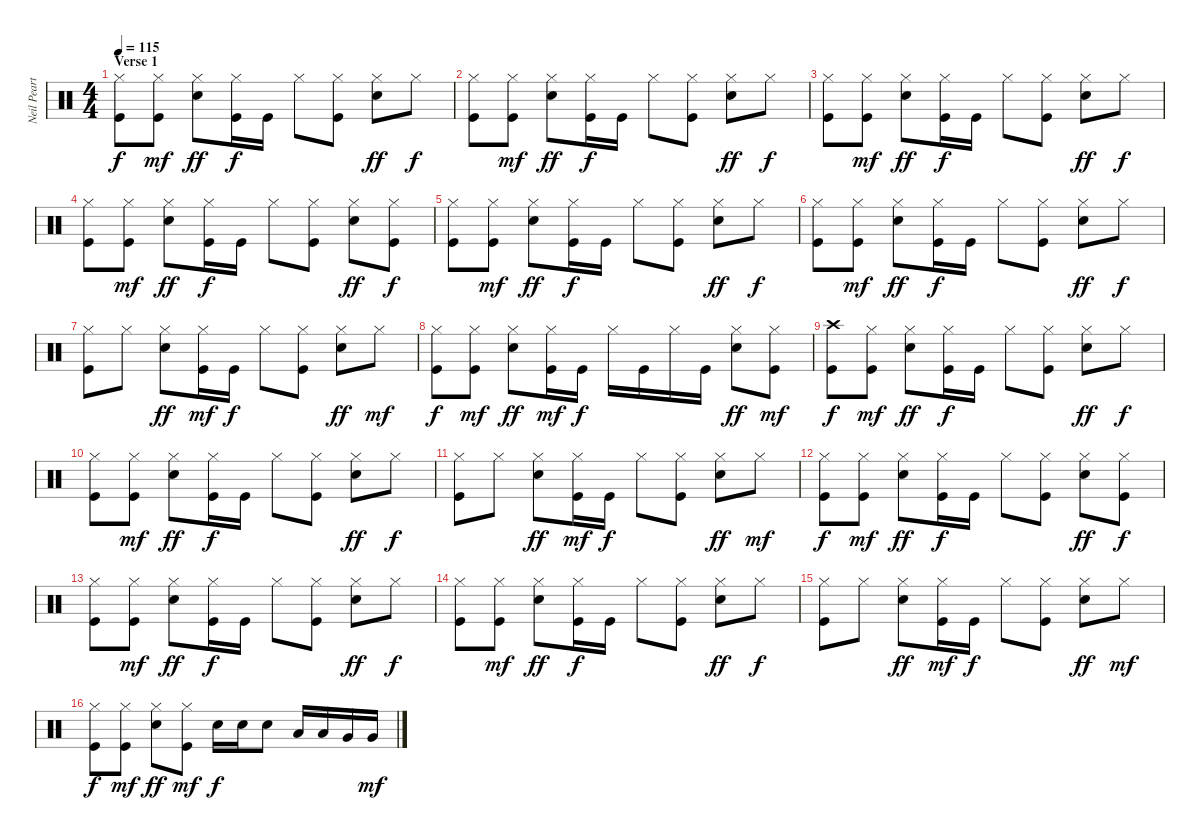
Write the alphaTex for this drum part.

\track ("Neil Peart - Drums" "Neil Peart") {instrument percussion}
\staff {score}
\articulation defaults
\ts (4 4)
\section ("" "Verse 1")
\tempo 115
\clef neutral
\ks c
("Hi-Hat (closed)" "Kick (hit)").8{dy f} ("Hi-Hat (closed)" "Kick (hit)").8{dy mf} ("Hi-Hat (closed)" "Electric Snare (hit)").8{dy ff} ("Hi-Hat (closed)" "Kick (hit)").16{dy f} "Kick (hit)".16 "Hi-Hat (closed)".8 ("Hi-Hat (closed)" "Kick (hit)").8 ("Hi-Hat (closed)" "Electric Snare (hit)").8{dy ff} "Hi-Hat (closed)".8{dy f} |
("Hi-Hat (closed)" "Kick (hit)").8 ("Hi-Hat (closed)" "Kick (hit)").8{dy mf} ("Hi-Hat (closed)" "Electric Snare (hit)").8{dy ff} ("Hi-Hat (closed)" "Kick (hit)").16{dy f} "Kick (hit)".16 "Hi-Hat (closed)".8 ("Hi-Hat (closed)" "Kick (hit)").8 ("Hi-Hat (closed)" "Electric Snare (hit)").8{dy ff} "Hi-Hat (closed)".8{dy f} |
("Hi-Hat (closed)" "Kick (hit)").8 ("Hi-Hat (closed)" "Kick (hit)").8{dy mf} ("Hi-Hat (closed)" "Electric Snare (hit)").8{dy ff} ("Hi-Hat (closed)" "Kick (hit)").16{dy f} "Kick (hit)".16 "Hi-Hat (closed)".8 ("Hi-Hat (closed)" "Kick (hit)").8 ("Hi-Hat (closed)" "Electric Snare (hit)").8{dy ff} "Hi-Hat (closed)".8{dy f} |
("Hi-Hat (closed)" "Kick (hit)").8 ("Hi-Hat (closed)" "Kick (hit)").8{dy mf} ("Hi-Hat (closed)" "Electric Snare (hit)").8{dy ff} ("Hi-Hat (closed)" "Kick (hit)").16{dy f} "Kick (hit)".16 "Hi-Hat (closed)".8 ("Hi-Hat (closed)" "Kick (hit)").8 ("Hi-Hat (closed)" "Electric Snare (hit)").8{dy ff} ("Hi-Hat (closed)" "Kick (hit)").8{dy f} |
("Hi-Hat (closed)" "Kick (hit)").8 ("Hi-Hat (closed)" "Kick (hit)").8{dy mf} ("Hi-Hat (closed)" "Electric Snare (hit)").8{dy ff} ("Hi-Hat (closed)" "Kick (hit)").16{dy f} "Kick (hit)".16 "Hi-Hat (closed)".8 ("Hi-Hat (closed)" "Kick (hit)").8 ("Hi-Hat (closed)" "Electric Snare (hit)").8{dy ff} "Hi-Hat (closed)".8{dy f} |
("Hi-Hat (closed)" "Kick (hit)").8 ("Hi-Hat (closed)" "Kick (hit)").8{dy mf} ("Hi-Hat (closed)" "Electric Snare (hit)").8{dy ff} ("Hi-Hat (closed)" "Kick (hit)").16{dy f} "Kick (hit)".16 "Hi-Hat (closed)".8 ("Hi-Hat (closed)" "Kick (hit)").8 ("Hi-Hat (closed)" "Electric Snare (hit)").8{dy ff} "Hi-Hat (closed)".8{dy f} |
("Hi-Hat (closed)" "Kick (hit)").8 "Hi-Hat (closed)".8 ("Hi-Hat (closed)" "Electric Snare (hit)").8{dy ff} ("Hi-Hat (closed)" "Kick (hit)").16{dy mf} "Kick (hit)".16{dy f} "Hi-Hat (closed)".8 ("Hi-Hat (closed)" "Kick (hit)").8 ("Hi-Hat (closed)" "Electric Snare (hit)").8{dy ff} "Hi-Hat (closed)".8{dy mf} |
("Hi-Hat (closed)" "Kick (hit)").8{dy f} ("Hi-Hat (closed)" "Kick (hit)").8{dy mf} ("Hi-Hat (closed)" "Electric Snare (hit)").8{dy ff} ("Hi-Hat (closed)" "Kick (hit)").16{dy mf} "Kick (hit)".16{dy f} "Hi-Hat (closed)".16 "Kick (hit)".16 "Hi-Hat (closed)".16 "Kick (hit)".16 ("Hi-Hat (closed)" "Electric Snare (hit)").8{dy ff} ("Hi-Hat (closed)" "Kick (hit)").8{dy mf} |
("Crash high (hit)" "Kick (hit)").8{dy f} ("Hi-Hat (closed)" "Kick (hit)").8{dy mf} ("Hi-Hat (closed)" "Electric Snare (hit)").8{dy ff} ("Hi-Hat (closed)" "Kick (hit)").16{dy f} "Kick (hit)".16 "Hi-Hat (closed)".8 ("Hi-Hat (closed)" "Kick (hit)").8 ("Hi-Hat (closed)" "Electric Snare (hit)").8{dy ff} "Hi-Hat (closed)".8{dy f} |
("Hi-Hat (closed)" "Kick (hit)").8 ("Hi-Hat (closed)" "Kick (hit)").8{dy mf} ("Hi-Hat (closed)" "Electric Snare (hit)").8{dy ff} ("Hi-Hat (closed)" "Kick (hit)").16{dy f} "Kick (hit)".16 "Hi-Hat (closed)".8 ("Hi-Hat (closed)" "Kick (hit)").8 ("Hi-Hat (closed)" "Electric Snare (hit)").8{dy ff} "Hi-Hat (closed)".8{dy f} |
("Hi-Hat (closed)" "Kick (hit)").8 "Hi-Hat (closed)".8 ("Hi-Hat (closed)" "Electric Snare (hit)").8{dy ff} ("Hi-Hat (closed)" "Kick (hit)").16{dy mf} "Kick (hit)".16{dy f} "Hi-Hat (closed)".8 ("Hi-Hat (closed)" "Kick (hit)").8 ("Hi-Hat (closed)" "Electric Snare (hit)").8{dy ff} "Hi-Hat (closed)".8{dy mf} |
("Hi-Hat (closed)" "Kick (hit)").8{dy f} ("Hi-Hat (closed)" "Kick (hit)").8{dy mf} ("Hi-Hat (closed)" "Electric Snare (hit)").8{dy ff} ("Hi-Hat (closed)" "Kick (hit)").16{dy f} "Kick (hit)".16 "Hi-Hat (closed)".8 ("Hi-Hat (closed)" "Kick (hit)").8 ("Hi-Hat (closed)" "Electric Snare (hit)").8{dy ff} ("Hi-Hat (closed)" "Kick (hit)").8{dy f} |
("Hi-Hat (closed)" "Kick (hit)").8 ("Hi-Hat (closed)" "Kick (hit)").8{dy mf} ("Hi-Hat (closed)" "Electric Snare (hit)").8{dy ff} ("Hi-Hat (closed)" "Kick (hit)").16{dy f} "Kick (hit)".16 "Hi-Hat (closed)".8 ("Hi-Hat (closed)" "Kick (hit)").8 ("Hi-Hat (closed)" "Electric Snare (hit)").8{dy ff} "Hi-Hat (closed)".8{dy f} |
("Hi-Hat (closed)" "Kick (hit)").8 ("Hi-Hat (closed)" "Kick (hit)").8{dy mf} ("Hi-Hat (closed)" "Electric Snare (hit)").8{dy ff} ("Hi-Hat (closed)" "Kick (hit)").16{dy f} "Kick (hit)".16 "Hi-Hat (closed)".8 ("Hi-Hat (closed)" "Kick (hit)").8 ("Hi-Hat (closed)" "Electric Snare (hit)").8{dy ff} "Hi-Hat (closed)".8{dy f} |
("Hi-Hat (closed)" "Kick (hit)").8 "Hi-Hat (closed)".8 ("Hi-Hat (closed)" "Electric Snare (hit)").8{dy ff} ("Hi-Hat (closed)" "Kick (hit)").16{dy mf} "Kick (hit)".16{dy f} "Hi-Hat (closed)".8 ("Hi-Hat (closed)" "Kick (hit)").8 ("Hi-Hat (closed)" "Electric Snare (hit)").8{dy ff} "Hi-Hat (closed)".8{dy mf} |
("Hi-Hat (closed)" "Kick (hit)").8{dy f} ("Hi-Hat (closed)" "Kick (hit)").8{dy mf} ("Hi-Hat (closed)" "Electric Snare (hit)").8{dy ff} ("Hi-Hat (closed)" "Kick (hit)").8{dy mf} "Electric Snare (hit)".16{dy f} "Electric Snare (hit)".16 "Electric Snare (hit)".8 "Low Tom (hit)".16 "Low Tom (hit)".16 "Very Low Tom (hit)".16 "Very Low Tom (hit)".16{dy mf}
